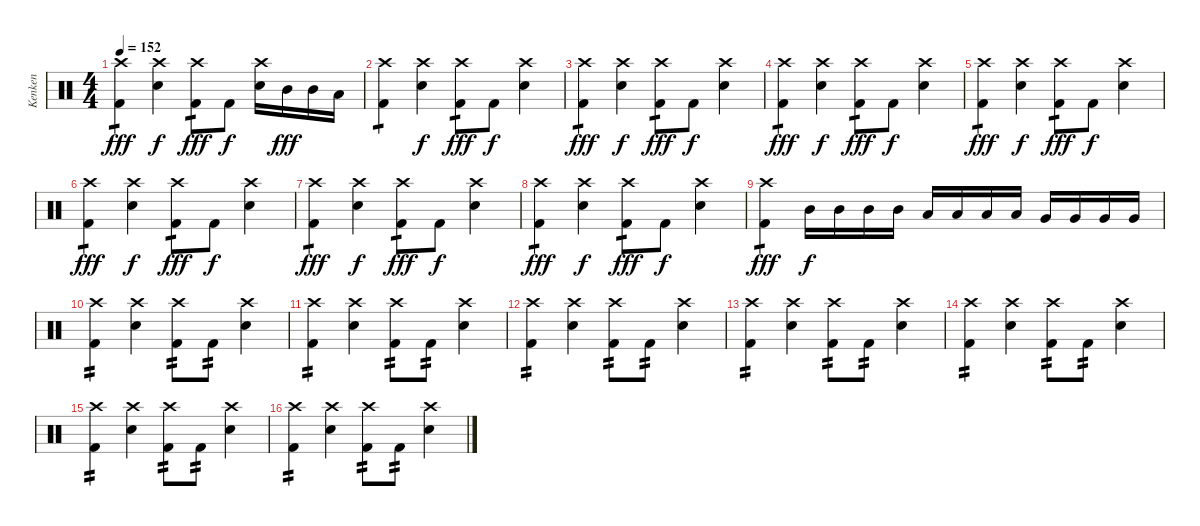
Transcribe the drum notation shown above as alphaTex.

\track ("Kenken" "Kenken") {instrument percussion}
\staff {score}
\articulation defaults
\ts (4 4)
\tempo 152
\clef neutral
\ks c
("Crash high (hit)" "Kick (hit) 2").4{tp 1 dy fff} ("Crash high (hit)" "Electric Snare (hit)").4{dy f} ("Crash high (hit)" "Kick (hit) 2").8{tp 1 dy fff} "Kick (hit) 2".8{dy f} ("Crash high (hit)" "Electric Snare (hit)").16 "Mid Tom (hit)".16{dy fff} "Mid Tom (hit)".16 "Low Tom (hit)".16 |
("Crash high (hit)" "Kick (hit) 2").4{tp 1} ("Crash high (hit)" "Electric Snare (hit)").4{dy f} ("Crash high (hit)" "Kick (hit) 2").8{tp 1 dy fff} "Kick (hit) 2".8{dy f} ("Crash high (hit)" "Electric Snare (hit)").4 |
("Crash high (hit)" "Kick (hit) 2").4{tp 1 dy fff} ("Crash high (hit)" "Electric Snare (hit)").4{dy f} ("Crash high (hit)" "Kick (hit) 2").8{tp 1 dy fff} "Kick (hit) 2".8{dy f} ("Crash high (hit)" "Electric Snare (hit)").4 |
("Crash high (hit)" "Kick (hit) 2").4{tp 1 dy fff} ("Crash high (hit)" "Electric Snare (hit)").4{dy f} ("Crash high (hit)" "Kick (hit) 2").8{tp 1 dy fff} "Kick (hit) 2".8{dy f} ("Crash high (hit)" "Electric Snare (hit)").4 |
("Crash high (hit)" "Kick (hit) 2").4{tp 1 dy fff} ("Crash high (hit)" "Electric Snare (hit)").4{dy f} ("Crash high (hit)" "Kick (hit) 2").8{tp 1 dy fff} "Kick (hit) 2".8{dy f} ("Crash high (hit)" "Electric Snare (hit)").4 |
("Crash high (hit)" "Kick (hit) 2").4{tp 1 dy fff} ("Crash high (hit)" "Electric Snare (hit)").4{dy f} ("Crash high (hit)" "Kick (hit) 2").8{tp 1 dy fff} "Kick (hit) 2".8{dy f} ("Crash high (hit)" "Electric Snare (hit)").4 |
("Crash high (hit)" "Kick (hit) 2").4{tp 1 dy fff} ("Crash high (hit)" "Electric Snare (hit)").4{dy f} ("Crash high (hit)" "Kick (hit) 2").8{tp 1 dy fff} "Kick (hit) 2".8{dy f} ("Crash high (hit)" "Electric Snare (hit)").4 |
("Crash high (hit)" "Kick (hit) 2").4{tp 1 dy fff} ("Crash high (hit)" "Electric Snare (hit)").4{dy f} ("Crash high (hit)" "Kick (hit) 2").8{tp 1 dy fff} "Kick (hit) 2".8{dy f} ("Crash high (hit)" "Electric Snare (hit)").4 |
("Crash high (hit)" "Kick (hit) 2").4{tp 1 dy fff} "Mid Tom (hit)".16{dy f} "Mid Tom (hit)".16 "Mid Tom (hit)".16 "Mid Tom (hit)".16 "Low Tom (hit)".16 "Low Tom (hit)".16 "Low Tom (hit)".16 "Low Tom (hit)".16 "Very Low Tom (hit)".16 "Very Low Tom (hit)".16 "Very Low Tom (hit)".16 "Very Low Tom (hit)".16 |
("Crash high (hit)" "Kick (hit) 2").4{tp 2} ("Crash high (hit)" "Electric Snare (hit)").4 ("Crash high (hit)" "Kick (hit) 2").8{tp 2} "Kick (hit) 2".8{tp 2} ("Crash high (hit)" "Electric Snare (hit)").4 |
("Crash high (hit)" "Kick (hit) 2").4{tp 2} ("Crash high (hit)" "Electric Snare (hit)").4 ("Crash high (hit)" "Kick (hit) 2").8{tp 2} "Kick (hit) 2".8{tp 2} ("Crash high (hit)" "Electric Snare (hit)").4 |
("Crash high (hit)" "Kick (hit) 2").4{tp 2} ("Crash high (hit)" "Electric Snare (hit)").4 ("Crash high (hit)" "Kick (hit) 2").8{tp 2} "Kick (hit) 2".8{tp 2} ("Crash high (hit)" "Electric Snare (hit)").4 |
("Crash high (hit)" "Kick (hit) 2").4{tp 2} ("Crash high (hit)" "Electric Snare (hit)").4 ("Crash high (hit)" "Kick (hit) 2").8{tp 2} "Kick (hit) 2".8{tp 2} ("Crash high (hit)" "Electric Snare (hit)").4 |
("Crash high (hit)" "Kick (hit) 2").4{tp 2} ("Crash high (hit)" "Electric Snare (hit)").4 ("Crash high (hit)" "Kick (hit) 2").8{tp 2} "Kick (hit) 2".8{tp 2} ("Crash high (hit)" "Electric Snare (hit)").4 |
("Crash high (hit)" "Kick (hit) 2").4{tp 2} ("Crash high (hit)" "Electric Snare (hit)").4 ("Crash high (hit)" "Kick (hit) 2").8{tp 2} "Kick (hit) 2".8{tp 2} ("Crash high (hit)" "Electric Snare (hit)").4 |
("Crash high (hit)" "Kick (hit) 2").4{tp 2} ("Crash high (hit)" "Electric Snare (hit)").4 ("Crash high (hit)" "Kick (hit) 2").8{tp 2} "Kick (hit) 2".8{tp 2} ("Crash high (hit)" "Electric Snare (hit)").4
